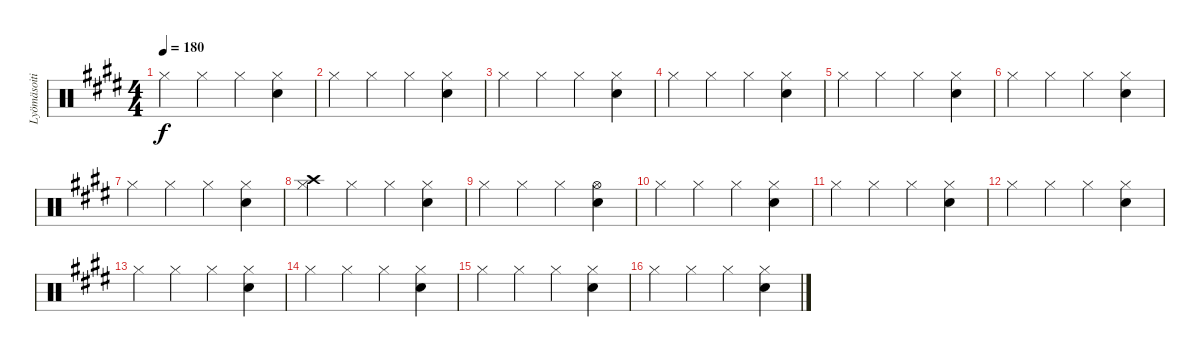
\track ("Lyömäsoitin" "Lyömäsoiti") {instrument percussion}
\staff {score}
\articulation defaults
\ts (4 4)
\tempo 180
\clef neutral
\ks e "Hi-Hat (closed)".4{dy f} "Hi-Hat (closed)".4 "Hi-Hat (closed)".4
("Hi-Hat (closed)" "Electric Snare (hit)").4 |
"Hi-Hat (closed)".4 "Hi-Hat (closed)".4 "Hi-Hat (closed)".4 ("Hi-Hat (closed)" "Electric Snare (hit)").4 |
"Hi-Hat (closed)".4 "Hi-Hat (closed)".4 "Hi-Hat (closed)".4 ("Hi-Hat (closed)" "Electric Snare (hit)").4 |
"Hi-Hat (closed)".4 "Hi-Hat (closed)".4 "Hi-Hat (closed)".4 ("Hi-Hat (closed)" "Electric Snare (hit)").4 |
"Hi-Hat (closed)".4 "Hi-Hat (closed)".4 "Hi-Hat (closed)".4 ("Hi-Hat (closed)" "Electric Snare (hit)").4 |
"Hi-Hat (closed)".4 "Hi-Hat (closed)".4 "Hi-Hat (closed)".4 ("Hi-Hat (closed)" "Electric Snare (hit)").4 |
"Hi-Hat (closed)".4 "Hi-Hat (closed)".4 "Hi-Hat (closed)".4 ("Hi-Hat (closed)" "Electric Snare (hit)").4 |
("Crash high (hit)" "Hi-Hat (closed)").4 "Hi-Hat (closed)".4 "Hi-Hat (closed)".4 ("Hi-Hat (closed)" "Electric Snare (hit)").4 |
"Hi-Hat (closed)".4 "Hi-Hat (closed)".4 "Hi-Hat (closed)".4 ("Hi-Hat (open)" "Electric Snare (hit)").4 |
"Hi-Hat (closed)".4 "Hi-Hat (closed)".4 "Hi-Hat (closed)".4 ("Hi-Hat (closed)" "Electric Snare (hit)").4 |
"Hi-Hat (closed)".4 "Hi-Hat (closed)".4 "Hi-Hat (closed)".4 ("Hi-Hat (closed)" "Electric Snare (hit)").4 |
"Hi-Hat (closed)".4 "Hi-Hat (closed)".4 "Hi-Hat (closed)".4 ("Hi-Hat (closed)" "Electric Snare (hit)").4 |
"Hi-Hat (closed)".4 "Hi-Hat (closed)".4 "Hi-Hat (closed)".4 ("Hi-Hat (closed)" "Electric Snare (hit)").4 |
"Hi-Hat (closed)".4 "Hi-Hat (closed)".4 "Hi-Hat (closed)".4 ("Hi-Hat (closed)" "Electric Snare (hit)").4 |
"Hi-Hat (closed)".4 "Hi-Hat (closed)".4 "Hi-Hat (closed)".4 ("Hi-Hat (closed)" "Electric Snare (hit)").4 |
"Hi-Hat (closed)".4 "Hi-Hat (closed)".4 "Hi-Hat (closed)".4 ("Hi-Hat (closed)" "Electric Snare (hit)").4
